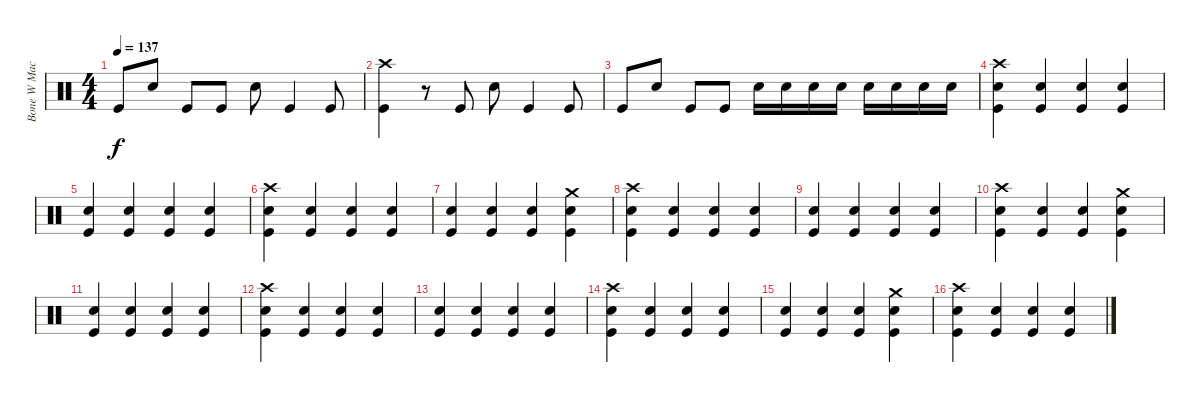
\track ("Bone W Machine Drums" "Bone W Mac") {instrument percussion}
\staff {score}
\articulation defaults
\ts (4 4)
\tempo 137
\clef neutral
\ks c "Kick (hit)".8{dy f} "Snare (hit) 2".8 "Kick (hit)".8 "Kick (hit)".8 "Snare (hit) 2".8 "Kick (hit)".4 "Kick (hit)".8
|
("Crash high (hit)" "Kick (hit)").4 r.8 "Kick (hit)".8 "Snare (hit) 2".8 "Kick (hit)".4 "Kick (hit)".8 |
"Kick (hit)".8 "Snare (hit) 2".8 "Kick (hit)".8 "Kick (hit)".8 "Snare (hit) 2".16 "Snare (hit) 2".16 "Snare (hit) 2".16 "Snare (hit) 2".16 "Snare (hit) 2".16 "Snare (hit) 2".16 "Snare (hit) 2".16 "Snare (hit) 2".16 |
("Crash high (hit)" "Snare (hit) 2" "Kick (hit)").4 ("Snare (hit) 2" "Kick (hit)").4 ("Snare (hit) 2" "Kick (hit)").4 ("Snare (hit) 2" "Kick (hit)").4 |
("Snare (hit) 2" "Kick (hit)").4 ("Snare (hit) 2" "Kick (hit)").4 ("Snare (hit) 2" "Kick (hit)").4 ("Snare (hit) 2" "Kick (hit)").4 |
("Crash high (hit)" "Snare (hit) 2" "Kick (hit)").4 ("Snare (hit) 2" "Kick (hit)").4 ("Snare (hit) 2" "Kick (hit)").4 ("Snare (hit) 2" "Kick (hit)").4 |
("Snare (hit) 2" "Kick (hit)").4 ("Snare (hit) 2" "Kick (hit)").4 ("Snare (hit) 2" "Kick (hit)").4 ("Crash medium (hit)" "Snare (hit) 2" "Kick (hit)").4 |
("Crash high (hit)" "Snare (hit) 2" "Kick (hit)").4 ("Snare (hit) 2" "Kick (hit)").4 ("Snare (hit) 2" "Kick (hit)").4 ("Snare (hit) 2" "Kick (hit)").4 |
("Snare (hit) 2" "Kick (hit)").4 ("Snare (hit) 2" "Kick (hit)").4 ("Snare (hit) 2" "Kick (hit)").4 ("Snare (hit) 2" "Kick (hit)").4 |
("Crash high (hit)" "Snare (hit) 2" "Kick (hit)").4 ("Snare (hit) 2" "Kick (hit)").4 ("Snare (hit) 2" "Kick (hit)").4 ("Crash medium (hit)" "Snare (hit) 2" "Kick (hit)").4 |
("Snare (hit) 2" "Kick (hit)").4 ("Snare (hit) 2" "Kick (hit)").4 ("Snare (hit) 2" "Kick (hit)").4 ("Snare (hit) 2" "Kick (hit)").4 |
("Crash high (hit)" "Snare (hit) 2" "Kick (hit)").4 ("Snare (hit) 2" "Kick (hit)").4 ("Snare (hit) 2" "Kick (hit)").4 ("Snare (hit) 2" "Kick (hit)").4 |
("Snare (hit) 2" "Kick (hit)").4 ("Snare (hit) 2" "Kick (hit)").4 ("Snare (hit) 2" "Kick (hit)").4 ("Snare (hit) 2" "Kick (hit)").4 |
("Crash high (hit)" "Snare (hit) 2" "Kick (hit)").4 ("Snare (hit) 2" "Kick (hit)").4 ("Snare (hit) 2" "Kick (hit)").4 ("Snare (hit) 2" "Kick (hit)").4 |
("Snare (hit) 2" "Kick (hit)").4 ("Snare (hit) 2" "Kick (hit)").4 ("Snare (hit) 2" "Kick (hit)").4 ("Crash medium (hit)" "Snare (hit) 2" "Kick (hit)").4 |
("Crash high (hit)" "Snare (hit) 2" "Kick (hit)").4 ("Snare (hit) 2" "Kick (hit)").4 ("Snare (hit) 2" "Kick (hit)").4 ("Snare (hit) 2" "Kick (hit)").4
